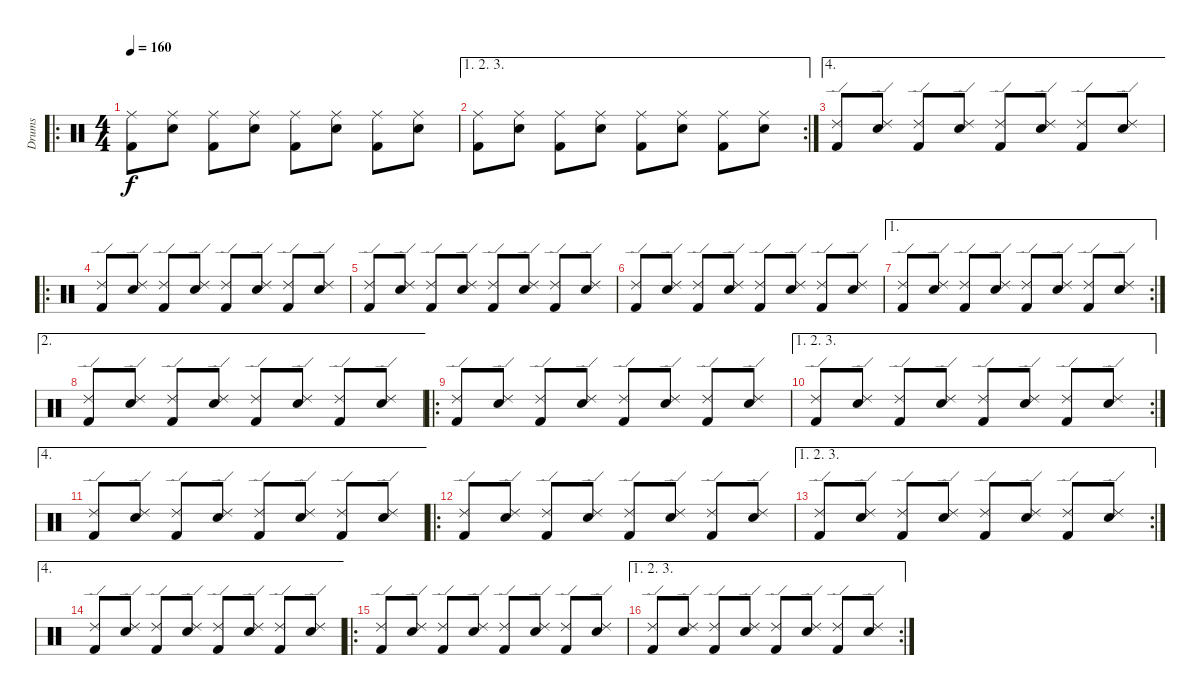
\track ("Drums" "Drums") {instrument percussion}
\staff {score}
\articulation defaults
\ro
\ts (4 4)
\tempo 160
\clef neutral
\ks c
("Ride (middle)" "Kick (hit) 2").8{dy f} ("Ride (middle)" "Snare (hit) 2").8 ("Ride (middle)" "Kick (hit) 2").8 ("Ride (middle)" "Snare (hit) 2").8 ("Ride (middle)" "Kick (hit) 2").8 ("Ride (middle)" "Snare (hit) 2").8 ("Ride (middle)" "Kick (hit) 2").8 ("Ride (middle)" "Snare (hit) 2").8 |
\ae (1 2 3)
\rc 2
("Ride (middle)" "Kick (hit) 2").8 ("Ride (middle)" "Snare (hit) 2").8 ("Ride (middle)" "Kick (hit) 2").8 ("Ride (middle)" "Snare (hit) 2").8 ("Ride (middle)" "Kick (hit) 2").8 ("Ride (middle)" "Snare (hit) 2").8 ("Ride (middle)" "Kick (hit) 2").8 ("Ride (middle)" "Snare (hit) 2").8 |
\ae 4
("Ride (edge) 2" "Kick (hit) 2").8 ("Ride (edge) 2" "Snare (hit) 2").8 ("Ride (edge) 2" "Kick (hit) 2").8 ("Ride (edge) 2" "Snare (hit) 2").8 ("Ride (edge) 2" "Kick (hit) 2").8 ("Ride (edge) 2" "Snare (hit) 2").8 ("Ride (edge) 2" "Kick (hit) 2").8 ("Ride (edge) 2" "Snare (hit) 2").8 |
\ro
("Ride (edge) 2" "Kick (hit) 2").8 ("Ride (edge) 2" "Snare (hit) 2").8 ("Ride (edge) 2" "Kick (hit) 2").8 ("Ride (edge) 2" "Snare (hit) 2").8 ("Ride (edge) 2" "Kick (hit) 2").8 ("Ride (edge) 2" "Snare (hit) 2").8 ("Ride (edge) 2" "Kick (hit) 2").8 ("Ride (edge) 2" "Snare (hit) 2").8 |
("Ride (edge) 2" "Kick (hit) 2").8 ("Ride (edge) 2" "Snare (hit) 2").8 ("Ride (edge) 2" "Kick (hit) 2").8 ("Ride (edge) 2" "Snare (hit) 2").8 ("Ride (edge) 2" "Kick (hit) 2").8 ("Ride (edge) 2" "Snare (hit) 2").8 ("Ride (edge) 2" "Kick (hit) 2").8 ("Ride (edge) 2" "Snare (hit) 2").8 |
("Ride (edge) 2" "Kick (hit) 2").8 ("Ride (edge) 2" "Snare (hit) 2").8 ("Ride (edge) 2" "Kick (hit) 2").8 ("Ride (edge) 2" "Snare (hit) 2").8 ("Ride (edge) 2" "Kick (hit) 2").8 ("Ride (edge) 2" "Snare (hit) 2").8 ("Ride (edge) 2" "Kick (hit) 2").8 ("Ride (edge) 2" "Snare (hit) 2").8 |
\ae 1
\rc 2
("Ride (edge) 2" "Kick (hit) 2").8 ("Ride (edge) 2" "Snare (hit) 2").8 ("Ride (edge) 2" "Kick (hit) 2").8 ("Ride (edge) 2" "Snare (hit) 2").8 ("Ride (edge) 2" "Kick (hit) 2").8 ("Ride (edge) 2" "Snare (hit) 2").8 ("Ride (edge) 2" "Kick (hit) 2").8 ("Ride (edge) 2" "Snare (hit) 2").8 |
\ae 2
("Ride (edge) 2" "Kick (hit) 2").8 ("Ride (edge) 2" "Snare (hit) 2").8 ("Ride (edge) 2" "Kick (hit) 2").8 ("Ride (edge) 2" "Snare (hit) 2").8 ("Ride (edge) 2" "Kick (hit) 2").8 ("Ride (edge) 2" "Snare (hit) 2").8 ("Ride (edge) 2" "Kick (hit) 2").8 ("Ride (edge) 2" "Snare (hit) 2").8 |
\ro
("Ride (edge) 2" "Kick (hit) 2").8 ("Ride (edge) 2" "Snare (hit) 2").8 ("Ride (edge) 2" "Kick (hit) 2").8 ("Ride (edge) 2" "Snare (hit) 2").8 ("Ride (edge) 2" "Kick (hit) 2").8 ("Ride (edge) 2" "Snare (hit) 2").8 ("Ride (edge) 2" "Kick (hit) 2").8 ("Ride (edge) 2" "Snare (hit) 2").8 |
\ae (1 2 3)
\rc 2
("Ride (edge) 2" "Kick (hit) 2").8 ("Ride (edge) 2" "Snare (hit) 2").8 ("Ride (edge) 2" "Kick (hit) 2").8 ("Ride (edge) 2" "Snare (hit) 2").8 ("Ride (edge) 2" "Kick (hit) 2").8 ("Ride (edge) 2" "Snare (hit) 2").8 ("Ride (edge) 2" "Kick (hit) 2").8 ("Ride (edge) 2" "Snare (hit) 2").8 |
\ae 4
("Ride (edge) 2" "Kick (hit) 2").8 ("Ride (edge) 2" "Snare (hit) 2").8 ("Ride (edge) 2" "Kick (hit) 2").8 ("Ride (edge) 2" "Snare (hit) 2").8 ("Ride (edge) 2" "Kick (hit) 2").8 ("Ride (edge) 2" "Snare (hit) 2").8 ("Ride (edge) 2" "Kick (hit) 2").8 ("Ride (edge) 2" "Snare (hit) 2").8 |
\ro
("Ride (edge) 2" "Kick (hit) 2").8 ("Ride (edge) 2" "Snare (hit) 2").8 ("Ride (edge) 2" "Kick (hit) 2").8 ("Ride (edge) 2" "Snare (hit) 2").8 ("Ride (edge) 2" "Kick (hit) 2").8 ("Ride (edge) 2" "Snare (hit) 2").8 ("Ride (edge) 2" "Kick (hit) 2").8 ("Ride (edge) 2" "Snare (hit) 2").8 |
\ae (1 2 3)
\rc 2
("Ride (edge) 2" "Kick (hit) 2").8 ("Ride (edge) 2" "Snare (hit) 2").8 ("Ride (edge) 2" "Kick (hit) 2").8 ("Ride (edge) 2" "Snare (hit) 2").8 ("Ride (edge) 2" "Kick (hit) 2").8 ("Ride (edge) 2" "Snare (hit) 2").8 ("Ride (edge) 2" "Kick (hit) 2").8 ("Ride (edge) 2" "Snare (hit) 2").8 |
\ae 4
("Ride (edge) 2" "Kick (hit) 2").8 ("Ride (edge) 2" "Snare (hit) 2").8 ("Ride (edge) 2" "Kick (hit) 2").8 ("Ride (edge) 2" "Snare (hit) 2").8 ("Ride (edge) 2" "Kick (hit) 2").8 ("Ride (edge) 2" "Snare (hit) 2").8 ("Ride (edge) 2" "Kick (hit) 2").8 ("Ride (edge) 2" "Snare (hit) 2").8 |
\ro
("Ride (edge) 2" "Kick (hit) 2").8 ("Ride (edge) 2" "Snare (hit) 2").8 ("Ride (edge) 2" "Kick (hit) 2").8 ("Ride (edge) 2" "Snare (hit) 2").8 ("Ride (edge) 2" "Kick (hit) 2").8 ("Ride (edge) 2" "Snare (hit) 2").8 ("Ride (edge) 2" "Kick (hit) 2").8 ("Ride (edge) 2" "Snare (hit) 2").8 |
\ae (1 2 3)
\rc 2
("Ride (edge) 2" "Kick (hit) 2").8 ("Ride (edge) 2" "Snare (hit) 2").8 ("Ride (edge) 2" "Kick (hit) 2").8 ("Ride (edge) 2" "Snare (hit) 2").8 ("Ride (edge) 2" "Kick (hit) 2").8 ("Ride (edge) 2" "Snare (hit) 2").8 ("Ride (edge) 2" "Kick (hit) 2").8 ("Ride (edge) 2" "Snare (hit) 2").8
